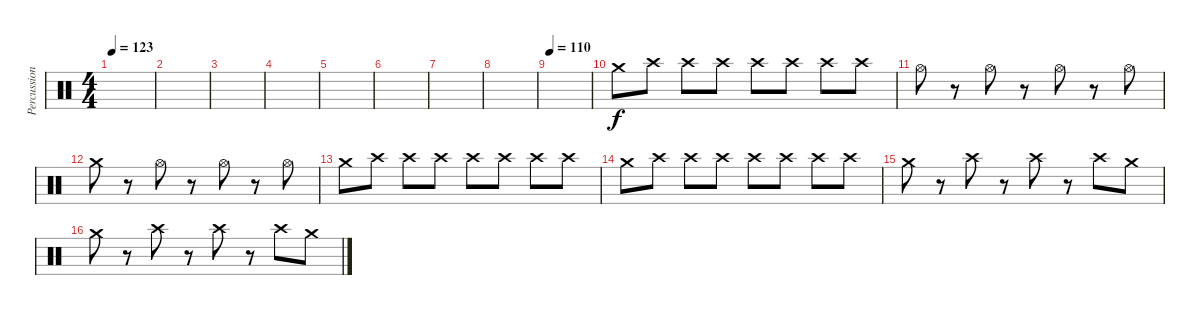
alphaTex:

\track ("Percussion" "Percussion") {solo instrument percussion}
\staff {score}
\articulation defaults
\ts (4 4)
\tempo 123
\clef neutral
\ks c
|
|
|
|
|
|
|
|
\tempo 110
|
"Crash medium (hit)".8 "Crash high (hit)".8 "Crash high (hit)".8 "Crash high (hit)".8 "Crash high (hit)".8 "Crash high (hit)".8 "Crash high (hit)".8 "Crash high (hit)".8 |
"Hi-Hat (open)".8 r.8 "Hi-Hat (open)".8 r.8 "Hi-Hat (open)".8 r.8 "Hi-Hat (open)".8 |
"Crash medium (hit)".8 r.8 "Hi-Hat (open)".8 r.8 "Hi-Hat (open)".8 r.8 "Hi-Hat (open)".8 |
"Crash medium (hit)".8 "Crash high (hit)".8 "Crash high (hit)".8 "Crash high (hit)".8 "Crash high (hit)".8 "Crash high (hit)".8 "Crash high (hit)".8 "Crash high (hit)".8 |
"Crash medium (hit)".8 "Crash high (hit)".8 "Crash high (hit)".8 "Crash high (hit)".8 "Crash high (hit)".8 "Crash high (hit)".8 "Crash high (hit)".8 "Crash high (hit)".8 |
"Crash medium (hit)".8 r.8 "Crash high (hit)".8 r.8 "Crash high (hit)".8 r.8 "Crash high (hit)".8 "Crash medium (hit)".8 |
"Crash medium (hit)".8 r.8 "Crash high (hit)".8 r.8 "Crash high (hit)".8 r.8 "Crash high (hit)".8 "Crash medium (hit)".8
